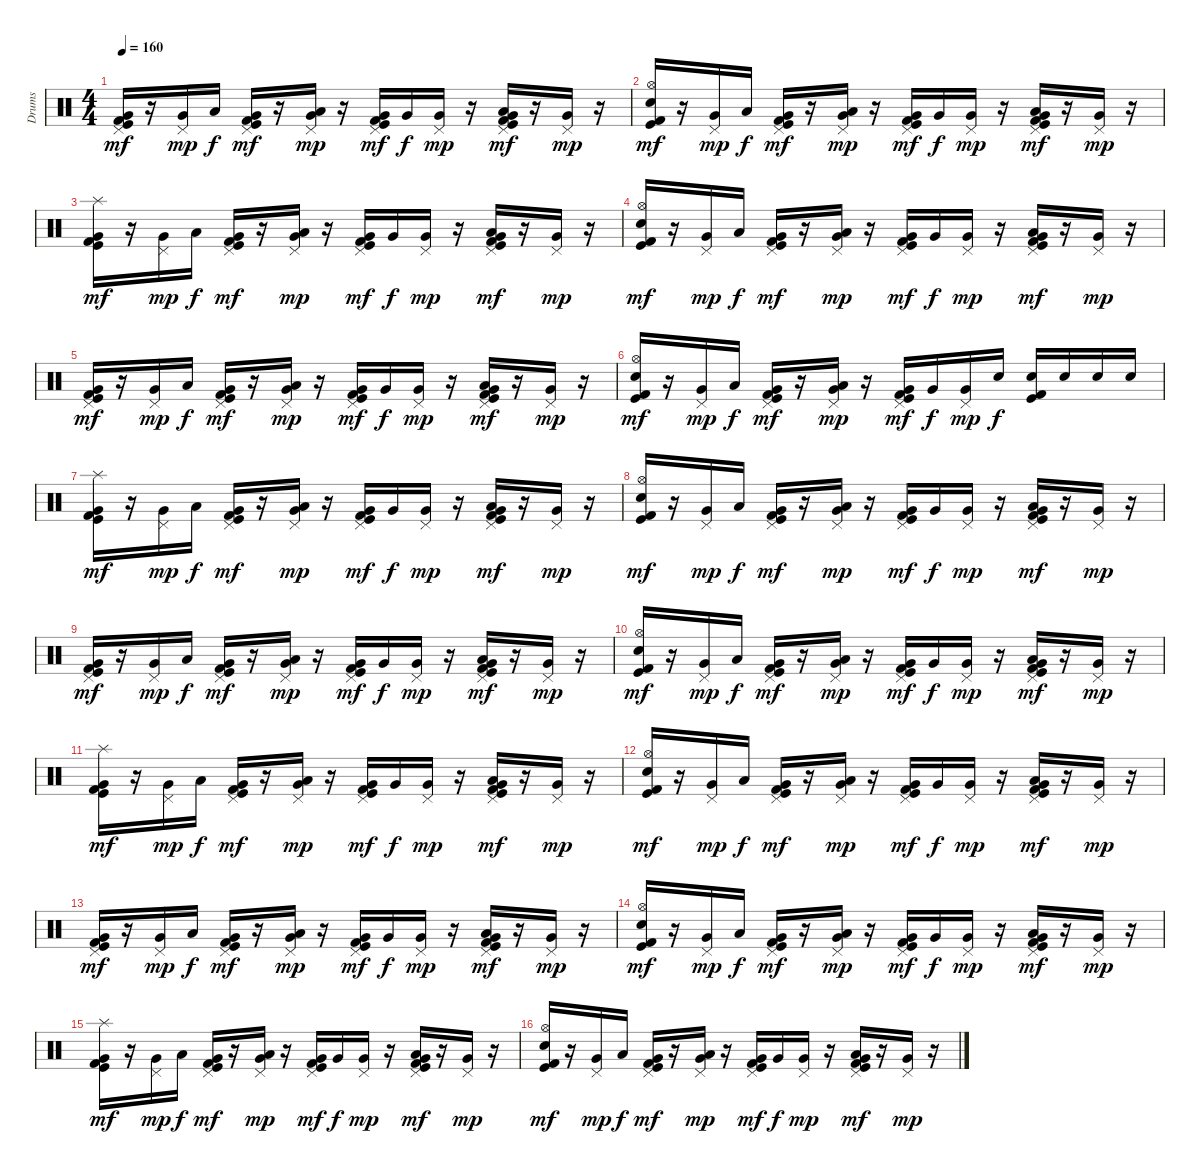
\track ("Drums" "Drums") {instrument percussion}
\staff {score}
\articulation defaults
\ts (4 4)
\tempo 160
\clef neutral
\ks c
("Pedal Hi-Hat (hit)" "Very Low Tom (hit)" "Kick (hit)" "Kick (hit) 2").16{dy mf} r.16 ("Pedal Hi-Hat (hit)" "Very Low Tom (hit)").16{dy mp} "Low Tom (hit)".16{dy f} ("Pedal Hi-Hat (hit)" "Very Low Tom (hit)" "Kick (hit)" "Kick (hit) 2").16{dy mf} r.16 ("Pedal Hi-Hat (hit)" "Low Tom (hit)" "Very Low Tom (hit)").16{dy mp} r.16 ("Pedal Hi-Hat (hit)" "Very Low Tom (hit)" "Kick (hit)" "Kick (hit) 2").16{dy mf} "Very Low Tom (hit)".16{dy f} ("Pedal Hi-Hat (hit)" "Very Low Tom (hit)").16{dy mp} r.16 ("Pedal Hi-Hat (hit)" "Low Tom (hit)" "Very Low Tom (hit)" "Kick (hit)" "Kick (hit) 2").16{dy mf} r.16 ("Pedal Hi-Hat (hit)" "Very Low Tom (hit)").16{dy mp} r.16 |
("Hi-Hat (open)" "Electric Snare (hit)" "Kick (hit)" "Kick (hit) 2").16{dy mf} r.16 ("Pedal Hi-Hat (hit)" "Very Low Tom (hit)").16{dy mp} "Low Tom (hit)".16{dy f} ("Pedal Hi-Hat (hit)" "Very Low Tom (hit)" "Kick (hit)" "Kick (hit) 2").16{dy mf} r.16 ("Pedal Hi-Hat (hit)" "Low Tom (hit)" "Very Low Tom (hit)").16{dy mp} r.16 ("Pedal Hi-Hat (hit)" "Very Low Tom (hit)" "Kick (hit)" "Kick (hit) 2").16{dy mf} "Very Low Tom (hit)".16{dy f} ("Pedal Hi-Hat (hit)" "Very Low Tom (hit)").16{dy mp} r.16 ("Pedal Hi-Hat (hit)" "Low Tom (hit)" "Very Low Tom (hit)" "Kick (hit)" "Kick (hit) 2").16{dy mf} r.16 ("Pedal Hi-Hat (hit)" "Very Low Tom (hit)").16{dy mp} r.16 |
("Splash (hit)" "Very Low Tom (hit)" "Kick (hit)" "Kick (hit) 2").16{dy mf} r.16 ("Pedal Hi-Hat (hit)" "Very Low Tom (hit)").16{dy mp} "Low Tom (hit)".16{dy f} ("Pedal Hi-Hat (hit)" "Very Low Tom (hit)" "Kick (hit)" "Kick (hit) 2").16{dy mf} r.16 ("Pedal Hi-Hat (hit)" "Low Tom (hit)" "Very Low Tom (hit)").16{dy mp} r.16 ("Pedal Hi-Hat (hit)" "Very Low Tom (hit)" "Kick (hit)" "Kick (hit) 2").16{dy mf} "Very Low Tom (hit)".16{dy f} ("Pedal Hi-Hat (hit)" "Very Low Tom (hit)").16{dy mp} r.16 ("Pedal Hi-Hat (hit)" "Low Tom (hit)" "Very Low Tom (hit)" "Kick (hit)" "Kick (hit) 2").16{dy mf} r.16 ("Pedal Hi-Hat (hit)" "Very Low Tom (hit)").16{dy mp} r.16 |
("Hi-Hat (open)" "Electric Snare (hit)" "Kick (hit)" "Kick (hit) 2").16{dy mf} r.16 ("Pedal Hi-Hat (hit)" "Very Low Tom (hit)").16{dy mp} "Low Tom (hit)".16{dy f} ("Pedal Hi-Hat (hit)" "Very Low Tom (hit)" "Kick (hit)" "Kick (hit) 2").16{dy mf} r.16 ("Pedal Hi-Hat (hit)" "Low Tom (hit)" "Very Low Tom (hit)").16{dy mp} r.16 ("Pedal Hi-Hat (hit)" "Very Low Tom (hit)" "Kick (hit)" "Kick (hit) 2").16{dy mf} "Very Low Tom (hit)".16{dy f} ("Pedal Hi-Hat (hit)" "Very Low Tom (hit)").16{dy mp} r.16 ("Pedal Hi-Hat (hit)" "Low Tom (hit)" "Very Low Tom (hit)" "Kick (hit)" "Kick (hit) 2").16{dy mf} r.16 ("Pedal Hi-Hat (hit)" "Very Low Tom (hit)").16{dy mp} r.16 |
("Pedal Hi-Hat (hit)" "Very Low Tom (hit)" "Kick (hit)" "Kick (hit) 2").16{dy mf} r.16 ("Pedal Hi-Hat (hit)" "Very Low Tom (hit)").16{dy mp} "Low Tom (hit)".16{dy f} ("Pedal Hi-Hat (hit)" "Very Low Tom (hit)" "Kick (hit)" "Kick (hit) 2").16{dy mf} r.16 ("Pedal Hi-Hat (hit)" "Low Tom (hit)" "Very Low Tom (hit)").16{dy mp} r.16 ("Pedal Hi-Hat (hit)" "Very Low Tom (hit)" "Kick (hit)" "Kick (hit) 2").16{dy mf} "Very Low Tom (hit)".16{dy f} ("Pedal Hi-Hat (hit)" "Very Low Tom (hit)").16{dy mp} r.16 ("Pedal Hi-Hat (hit)" "Low Tom (hit)" "Very Low Tom (hit)" "Kick (hit)" "Kick (hit) 2").16{dy mf} r.16 ("Pedal Hi-Hat (hit)" "Very Low Tom (hit)").16{dy mp} r.16 |
("Hi-Hat (open)" "Electric Snare (hit)" "Kick (hit)" "Kick (hit) 2").16{dy mf} r.16 ("Pedal Hi-Hat (hit)" "Very Low Tom (hit)").16{dy mp} "Low Tom (hit)".16{dy f} ("Pedal Hi-Hat (hit)" "Very Low Tom (hit)" "Kick (hit)" "Kick (hit) 2").16{dy mf} r.16 ("Pedal Hi-Hat (hit)" "Low Tom (hit)" "Very Low Tom (hit)").16{dy mp} r.16 ("Pedal Hi-Hat (hit)" "Very Low Tom (hit)" "Kick (hit)" "Kick (hit) 2").16{dy mf} "Very Low Tom (hit)".16{dy f} ("Pedal Hi-Hat (hit)" "Very Low Tom (hit)").16{dy mp} "Electric Snare (hit)".16{dy f} ("Electric Snare (hit)" "Kick (hit)" "Kick (hit) 2").16 "Electric Snare (hit)".16 "Electric Snare (hit)".16 "Electric Snare (hit)".16 |
("Splash (hit)" "Very Low Tom (hit)" "Kick (hit)" "Kick (hit) 2").16{dy mf} r.16 ("Pedal Hi-Hat (hit)" "Very Low Tom (hit)").16{dy mp} "Low Tom (hit)".16{dy f} ("Pedal Hi-Hat (hit)" "Very Low Tom (hit)" "Kick (hit)" "Kick (hit) 2").16{dy mf} r.16 ("Pedal Hi-Hat (hit)" "Low Tom (hit)" "Very Low Tom (hit)").16{dy mp} r.16 ("Pedal Hi-Hat (hit)" "Very Low Tom (hit)" "Kick (hit)" "Kick (hit) 2").16{dy mf} "Very Low Tom (hit)".16{dy f} ("Pedal Hi-Hat (hit)" "Very Low Tom (hit)").16{dy mp} r.16 ("Pedal Hi-Hat (hit)" "Low Tom (hit)" "Very Low Tom (hit)" "Kick (hit)" "Kick (hit) 2").16{dy mf} r.16 ("Pedal Hi-Hat (hit)" "Very Low Tom (hit)").16{dy mp} r.16 |
("Hi-Hat (open)" "Electric Snare (hit)" "Kick (hit)" "Kick (hit) 2").16{dy mf} r.16 ("Pedal Hi-Hat (hit)" "Very Low Tom (hit)").16{dy mp} "Low Tom (hit)".16{dy f} ("Pedal Hi-Hat (hit)" "Very Low Tom (hit)" "Kick (hit)" "Kick (hit) 2").16{dy mf} r.16 ("Pedal Hi-Hat (hit)" "Low Tom (hit)" "Very Low Tom (hit)").16{dy mp} r.16 ("Pedal Hi-Hat (hit)" "Very Low Tom (hit)" "Kick (hit)" "Kick (hit) 2").16{dy mf} "Very Low Tom (hit)".16{dy f} ("Pedal Hi-Hat (hit)" "Very Low Tom (hit)").16{dy mp} r.16 ("Pedal Hi-Hat (hit)" "Low Tom (hit)" "Very Low Tom (hit)" "Kick (hit)" "Kick (hit) 2").16{dy mf} r.16 ("Pedal Hi-Hat (hit)" "Very Low Tom (hit)").16{dy mp} r.16 |
("Pedal Hi-Hat (hit)" "Very Low Tom (hit)" "Kick (hit)" "Kick (hit) 2").16{dy mf} r.16 ("Pedal Hi-Hat (hit)" "Very Low Tom (hit)").16{dy mp} "Low Tom (hit)".16{dy f} ("Pedal Hi-Hat (hit)" "Very Low Tom (hit)" "Kick (hit)" "Kick (hit) 2").16{dy mf} r.16 ("Pedal Hi-Hat (hit)" "Low Tom (hit)" "Very Low Tom (hit)").16{dy mp} r.16 ("Pedal Hi-Hat (hit)" "Very Low Tom (hit)" "Kick (hit)" "Kick (hit) 2").16{dy mf} "Very Low Tom (hit)".16{dy f} ("Pedal Hi-Hat (hit)" "Very Low Tom (hit)").16{dy mp} r.16 ("Pedal Hi-Hat (hit)" "Low Tom (hit)" "Very Low Tom (hit)" "Kick (hit)" "Kick (hit) 2").16{dy mf} r.16 ("Pedal Hi-Hat (hit)" "Very Low Tom (hit)").16{dy mp} r.16 |
("Hi-Hat (open)" "Electric Snare (hit)" "Kick (hit)" "Kick (hit) 2").16{dy mf} r.16 ("Pedal Hi-Hat (hit)" "Very Low Tom (hit)").16{dy mp} "Low Tom (hit)".16{dy f} ("Pedal Hi-Hat (hit)" "Very Low Tom (hit)" "Kick (hit)" "Kick (hit) 2").16{dy mf} r.16 ("Pedal Hi-Hat (hit)" "Low Tom (hit)" "Very Low Tom (hit)").16{dy mp} r.16 ("Pedal Hi-Hat (hit)" "Very Low Tom (hit)" "Kick (hit)" "Kick (hit) 2").16{dy mf} "Very Low Tom (hit)".16{dy f} ("Pedal Hi-Hat (hit)" "Very Low Tom (hit)").16{dy mp} r.16 ("Pedal Hi-Hat (hit)" "Low Tom (hit)" "Very Low Tom (hit)" "Kick (hit)" "Kick (hit) 2").16{dy mf} r.16 ("Pedal Hi-Hat (hit)" "Very Low Tom (hit)").16{dy mp} r.16 |
("Splash (hit)" "Very Low Tom (hit)" "Kick (hit)" "Kick (hit) 2").16{dy mf} r.16 ("Pedal Hi-Hat (hit)" "Very Low Tom (hit)").16{dy mp} "Low Tom (hit)".16{dy f} ("Pedal Hi-Hat (hit)" "Very Low Tom (hit)" "Kick (hit)" "Kick (hit) 2").16{dy mf} r.16 ("Pedal Hi-Hat (hit)" "Low Tom (hit)" "Very Low Tom (hit)").16{dy mp} r.16 ("Pedal Hi-Hat (hit)" "Very Low Tom (hit)" "Kick (hit)" "Kick (hit) 2").16{dy mf} "Very Low Tom (hit)".16{dy f} ("Pedal Hi-Hat (hit)" "Very Low Tom (hit)").16{dy mp} r.16 ("Pedal Hi-Hat (hit)" "Low Tom (hit)" "Very Low Tom (hit)" "Kick (hit)" "Kick (hit) 2").16{dy mf} r.16 ("Pedal Hi-Hat (hit)" "Very Low Tom (hit)").16{dy mp} r.16 |
("Hi-Hat (open)" "Electric Snare (hit)" "Kick (hit)" "Kick (hit) 2").16{dy mf} r.16 ("Pedal Hi-Hat (hit)" "Very Low Tom (hit)").16{dy mp} "Low Tom (hit)".16{dy f} ("Pedal Hi-Hat (hit)" "Very Low Tom (hit)" "Kick (hit)" "Kick (hit) 2").16{dy mf} r.16 ("Pedal Hi-Hat (hit)" "Low Tom (hit)" "Very Low Tom (hit)").16{dy mp} r.16 ("Pedal Hi-Hat (hit)" "Very Low Tom (hit)" "Kick (hit)" "Kick (hit) 2").16{dy mf} "Very Low Tom (hit)".16{dy f} ("Pedal Hi-Hat (hit)" "Very Low Tom (hit)").16{dy mp} r.16 ("Pedal Hi-Hat (hit)" "Low Tom (hit)" "Very Low Tom (hit)" "Kick (hit)" "Kick (hit) 2").16{dy mf} r.16 ("Pedal Hi-Hat (hit)" "Very Low Tom (hit)").16{dy mp} r.16 |
("Pedal Hi-Hat (hit)" "Very Low Tom (hit)" "Kick (hit)" "Kick (hit) 2").16{dy mf} r.16 ("Pedal Hi-Hat (hit)" "Very Low Tom (hit)").16{dy mp} "Low Tom (hit)".16{dy f} ("Pedal Hi-Hat (hit)" "Very Low Tom (hit)" "Kick (hit)" "Kick (hit) 2").16{dy mf} r.16 ("Pedal Hi-Hat (hit)" "Low Tom (hit)" "Very Low Tom (hit)").16{dy mp} r.16 ("Pedal Hi-Hat (hit)" "Very Low Tom (hit)" "Kick (hit)" "Kick (hit) 2").16{dy mf} "Very Low Tom (hit)".16{dy f} ("Pedal Hi-Hat (hit)" "Very Low Tom (hit)").16{dy mp} r.16 ("Pedal Hi-Hat (hit)" "Low Tom (hit)" "Very Low Tom (hit)" "Kick (hit)" "Kick (hit) 2").16{dy mf} r.16 ("Pedal Hi-Hat (hit)" "Very Low Tom (hit)").16{dy mp} r.16 |
("Hi-Hat (open)" "Electric Snare (hit)" "Kick (hit)" "Kick (hit) 2").16{dy mf} r.16 ("Pedal Hi-Hat (hit)" "Very Low Tom (hit)").16{dy mp} "Low Tom (hit)".16{dy f} ("Pedal Hi-Hat (hit)" "Very Low Tom (hit)" "Kick (hit)" "Kick (hit) 2").16{dy mf} r.16 ("Pedal Hi-Hat (hit)" "Low Tom (hit)" "Very Low Tom (hit)").16{dy mp} r.16 ("Pedal Hi-Hat (hit)" "Very Low Tom (hit)" "Kick (hit)" "Kick (hit) 2").16{dy mf} "Very Low Tom (hit)".16{dy f} ("Pedal Hi-Hat (hit)" "Very Low Tom (hit)").16{dy mp} r.16 ("Pedal Hi-Hat (hit)" "Low Tom (hit)" "Very Low Tom (hit)" "Kick (hit)" "Kick (hit) 2").16{dy mf} r.16 ("Pedal Hi-Hat (hit)" "Very Low Tom (hit)").16{dy mp} r.16 |
("Splash (hit)" "Very Low Tom (hit)" "Kick (hit)" "Kick (hit) 2").16{dy mf} r.16 ("Pedal Hi-Hat (hit)" "Very Low Tom (hit)").16{dy mp} "Low Tom (hit)".16{dy f} ("Pedal Hi-Hat (hit)" "Very Low Tom (hit)" "Kick (hit)" "Kick (hit) 2").16{dy mf} r.16 ("Pedal Hi-Hat (hit)" "Low Tom (hit)" "Very Low Tom (hit)").16{dy mp} r.16 ("Pedal Hi-Hat (hit)" "Very Low Tom (hit)" "Kick (hit)" "Kick (hit) 2").16{dy mf} "Very Low Tom (hit)".16{dy f} ("Pedal Hi-Hat (hit)" "Very Low Tom (hit)").16{dy mp} r.16 ("Pedal Hi-Hat (hit)" "Low Tom (hit)" "Very Low Tom (hit)" "Kick (hit)" "Kick (hit) 2").16{dy mf} r.16 ("Pedal Hi-Hat (hit)" "Very Low Tom (hit)").16{dy mp} r.16 |
("Hi-Hat (open)" "Electric Snare (hit)" "Kick (hit)" "Kick (hit) 2").16{dy mf} r.16 ("Pedal Hi-Hat (hit)" "Very Low Tom (hit)").16{dy mp} "Low Tom (hit)".16{dy f} ("Pedal Hi-Hat (hit)" "Very Low Tom (hit)" "Kick (hit)" "Kick (hit) 2").16{dy mf} r.16 ("Pedal Hi-Hat (hit)" "Low Tom (hit)" "Very Low Tom (hit)").16{dy mp} r.16 ("Pedal Hi-Hat (hit)" "Very Low Tom (hit)" "Kick (hit)" "Kick (hit) 2").16{dy mf} "Very Low Tom (hit)".16{dy f} ("Pedal Hi-Hat (hit)" "Very Low Tom (hit)").16{dy mp} r.16 ("Pedal Hi-Hat (hit)" "Low Tom (hit)" "Very Low Tom (hit)" "Kick (hit)" "Kick (hit) 2").16{dy mf} r.16 ("Pedal Hi-Hat (hit)" "Very Low Tom (hit)").16{dy mp} r.16
